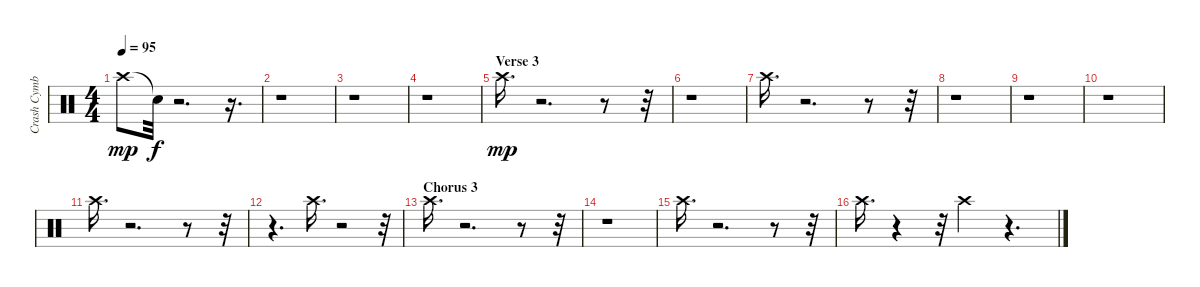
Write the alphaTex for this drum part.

\track ("Crash Cymbal" "Crash Cymb") {instrument percussion}
\staff {score}
\articulation defaults
\ts (4 4)
\tempo 95
\clef neutral
\ks c "Crash high (hit)".8{dy mp} "Snare (hit)"{t}.32{dy f}
r.2{d} r.16{d} |
r.1 |
r.1 |
r.1 |
\section ("" "Verse 3")
"Crash high (hit)".16{d dy mp} r.2{d} r.8 r.32 |
r.1 |
"Crash high (hit)".16{d} r.2{d} r.8 r.32 |
r.1 |
r.1 |
r.1 |
"Crash high (hit)".16{d} r.2{d} r.8 r.32 |
r.4{d} "Crash high (hit)".16{d} r.2 r.32 |
\section ("" "Chorus 3")
"Crash high (hit)".16{d} r.2{d} r.8 r.32 |
r.1 |
"Crash high (hit)".16{d} r.2{d} r.8 r.32 |
"Crash high (hit)".16{d} r.4 r.32 "Crash high (hit)".4 r.4{d}
